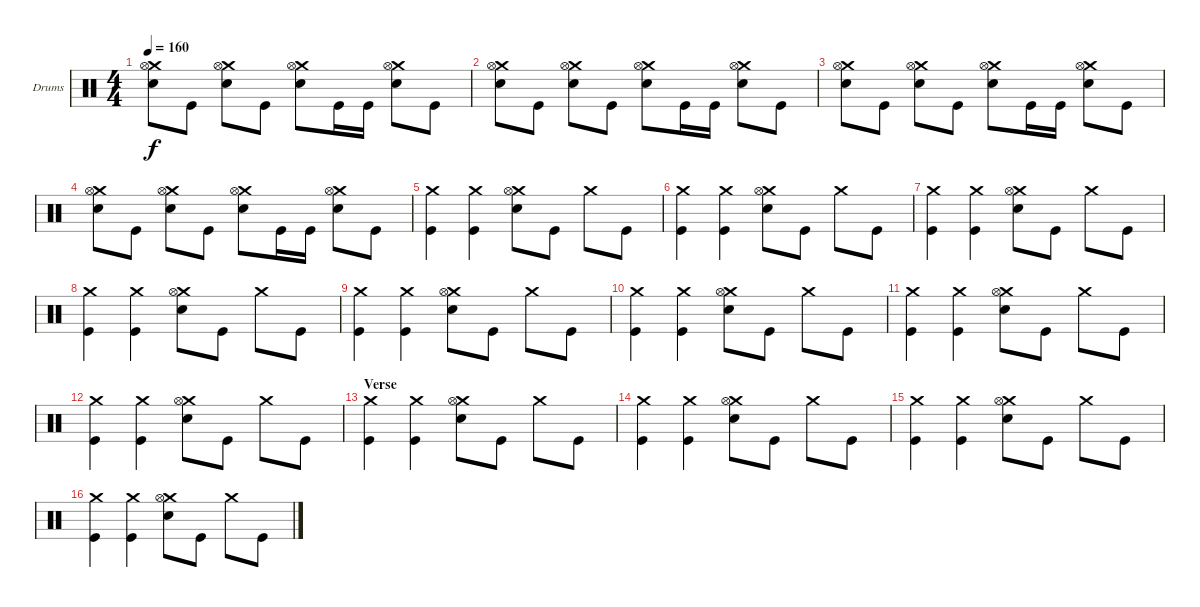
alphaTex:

\bracketExtendMode groupsimilarinstruments
\firstSystemTrackNameOrientation horizontal
\otherSystemsTrackNameOrientation horizontal
\track ("Lars Ulrich (Drum)" "Drums") {instrument percussion}
\staff {score}
\articulation defaults
\ts (4 4)
\tempo 160
\clef neutral
\ks c
("Crash medium (hit)" "Hi-Hat (open)" "Snare (hit) 2").8{dy f} "Kick (hit)".8 ("Crash medium (hit)" "Hi-Hat (open)" "Snare (hit) 2").8 "Kick (hit)".8 ("Crash medium (hit)" "Hi-Hat (open)" "Snare (hit) 2").8 "Kick (hit)".16 "Kick (hit)".16 ("Crash medium (hit)" "Hi-Hat (open)" "Snare (hit) 2").8 "Kick (hit)".8 |
("Crash medium (hit)" "Hi-Hat (open)" "Snare (hit) 2").8 "Kick (hit)".8 ("Crash medium (hit)" "Hi-Hat (open)" "Snare (hit) 2").8 "Kick (hit)".8 ("Crash medium (hit)" "Hi-Hat (open)" "Snare (hit) 2").8 "Kick (hit)".16 "Kick (hit)".16 ("Crash medium (hit)" "Hi-Hat (open)" "Snare (hit) 2").8 "Kick (hit)".8 |
("Crash medium (hit)" "Hi-Hat (open)" "Snare (hit) 2").8 "Kick (hit)".8 ("Crash medium (hit)" "Hi-Hat (open)" "Snare (hit) 2").8 "Kick (hit)".8 ("Crash medium (hit)" "Hi-Hat (open)" "Snare (hit) 2").8 "Kick (hit)".16 "Kick (hit)".16 ("Crash medium (hit)" "Hi-Hat (open)" "Snare (hit) 2").8 "Kick (hit)".8 |
("Crash medium (hit)" "Hi-Hat (open)" "Snare (hit) 2").8 "Kick (hit)".8 ("Crash medium (hit)" "Hi-Hat (open)" "Snare (hit) 2").8 "Kick (hit)".8 ("Crash medium (hit)" "Hi-Hat (open)" "Snare (hit) 2").8 "Kick (hit)".16 "Kick (hit)".16 ("Crash medium (hit)" "Hi-Hat (open)" "Snare (hit) 2").8 "Kick (hit)".8 |
("Crash medium (hit)" "Kick (hit)").4 ("Crash medium (hit)" "Kick (hit)").4 ("Crash medium (hit)" "Hi-Hat (open)" "Snare (hit) 2").8 "Kick (hit)".8 "Crash medium (hit)".8 "Kick (hit)".8 |
("Crash medium (hit)" "Kick (hit)").4 ("Crash medium (hit)" "Kick (hit)").4 ("Crash medium (hit)" "Hi-Hat (open)" "Snare (hit) 2").8 "Kick (hit)".8 "Crash medium (hit)".8 "Kick (hit)".8 |
("Crash medium (hit)" "Kick (hit)").4 ("Crash medium (hit)" "Kick (hit)").4 ("Crash medium (hit)" "Hi-Hat (open)" "Snare (hit) 2").8 "Kick (hit)".8 "Crash medium (hit)".8 "Kick (hit)".8 |
("Crash medium (hit)" "Kick (hit)").4 ("Crash medium (hit)" "Kick (hit)").4 ("Crash medium (hit)" "Hi-Hat (open)" "Snare (hit) 2").8 "Kick (hit)".8 "Crash medium (hit)".8 "Kick (hit)".8 |
("Crash medium (hit)" "Kick (hit)").4 ("Crash medium (hit)" "Kick (hit)").4 ("Crash medium (hit)" "Hi-Hat (open)" "Snare (hit) 2").8 "Kick (hit)".8 "Crash medium (hit)".8 "Kick (hit)".8 |
("Crash medium (hit)" "Kick (hit)").4 ("Crash medium (hit)" "Kick (hit)").4 ("Crash medium (hit)" "Hi-Hat (open)" "Snare (hit) 2").8 "Kick (hit)".8 "Crash medium (hit)".8 "Kick (hit)".8 |
("Crash medium (hit)" "Kick (hit)").4 ("Crash medium (hit)" "Kick (hit)").4 ("Crash medium (hit)" "Hi-Hat (open)" "Snare (hit) 2").8 "Kick (hit)".8 "Crash medium (hit)".8 "Kick (hit)".8 |
("Crash medium (hit)" "Kick (hit)").4 ("Crash medium (hit)" "Kick (hit)").4 ("Crash medium (hit)" "Hi-Hat (open)" "Snare (hit) 2").8 "Kick (hit)".8 "Crash medium (hit)".8 "Kick (hit)".8 |
\section ("" "Verse")
("Crash medium (hit)" "Kick (hit)").4 ("Crash medium (hit)" "Kick (hit)").4 ("Crash medium (hit)" "Hi-Hat (open)" "Snare (hit) 2").8 "Kick (hit)".8 "Crash medium (hit)".8 "Kick (hit)".8 |
("Crash medium (hit)" "Kick (hit)").4 ("Crash medium (hit)" "Kick (hit)").4 ("Crash medium (hit)" "Hi-Hat (open)" "Snare (hit) 2").8 "Kick (hit)".8 "Crash medium (hit)".8 "Kick (hit)".8 |
("Crash medium (hit)" "Kick (hit)").4 ("Crash medium (hit)" "Kick (hit)").4 ("Crash medium (hit)" "Hi-Hat (open)" "Snare (hit) 2").8 "Kick (hit)".8 "Crash medium (hit)".8 "Kick (hit)".8 |
("Crash medium (hit)" "Kick (hit)").4 ("Crash medium (hit)" "Kick (hit)").4 ("Crash medium (hit)" "Hi-Hat (open)" "Snare (hit) 2").8 "Kick (hit)".8 "Crash medium (hit)".8 "Kick (hit)".8
